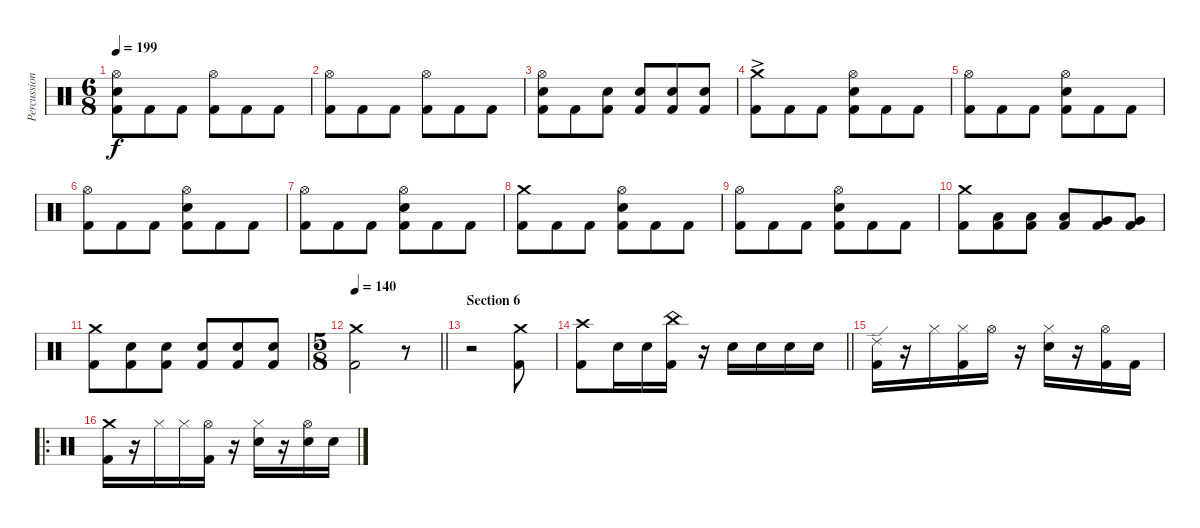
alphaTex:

\track ("Percussion" "Percussion") {instrument percussion}
\staff {score}
\articulation defaults
\ts (6 8)
\tempo 199
\clef neutral
\ks c
("Hi-Hat (open)" "Electric Snare (hit)" "Kick (hit) 2").8{dy f} "Kick (hit) 2".8 "Kick (hit) 2".8 ("Hi-Hat (open)" "Kick (hit) 2").8 "Kick (hit) 2".8 "Kick (hit) 2".8 |
("Hi-Hat (open)" "Kick (hit) 2").8 "Kick (hit) 2".8 "Kick (hit) 2".8 ("Hi-Hat (open)" "Kick (hit) 2").8 "Kick (hit) 2".8 "Kick (hit) 2".8 |
("Hi-Hat (open)" "Electric Snare (hit)" "Kick (hit) 2").8 "Kick (hit) 2".8 ("Electric Snare (hit)" "Kick (hit) 2").8 ("Electric Snare (hit)" "Kick (hit) 2").8 ("Electric Snare (hit)" "Kick (hit) 2").8 ("Electric Snare (hit)" "Kick (hit) 2").8 |
("Crash medium (hit)"{ac} "Kick (hit) 2").8 "Kick (hit) 2".8 "Kick (hit) 2".8 ("Hi-Hat (open)" "Electric Snare (hit)" "Kick (hit) 2").8 "Kick (hit) 2".8 "Kick (hit) 2".8 |
("Hi-Hat (open)" "Kick (hit) 2").8 "Kick (hit) 2".8 "Kick (hit) 2".8 ("Hi-Hat (open)" "Electric Snare (hit)" "Kick (hit) 2").8 "Kick (hit) 2".8 "Kick (hit) 2".8 |
("Hi-Hat (open)" "Kick (hit) 2").8 "Kick (hit) 2".8 "Kick (hit) 2".8 ("Hi-Hat (open)" "Electric Snare (hit)" "Kick (hit) 2").8 "Kick (hit) 2".8 "Kick (hit) 2".8 |
("Hi-Hat (open)" "Kick (hit) 2").8 "Kick (hit) 2".8 "Kick (hit) 2".8 ("Hi-Hat (open)" "Electric Snare (hit)" "Kick (hit) 2").8 "Kick (hit) 2".8 "Kick (hit) 2".8 |
("Crash medium (hit)" "Kick (hit) 2").8 "Kick (hit) 2".8 "Kick (hit) 2".8 ("Hi-Hat (open)" "Electric Snare (hit)" "Kick (hit) 2").8 "Kick (hit) 2".8 "Kick (hit) 2".8 |
("Hi-Hat (open)" "Kick (hit) 2").8 "Kick (hit) 2".8 "Kick (hit) 2".8 ("Hi-Hat (open)" "Electric Snare (hit)" "Kick (hit) 2").8 "Kick (hit) 2".8 "Kick (hit) 2".8 |
("Crash medium (hit)" "Kick (hit) 2").8 ("Low Tom (hit)" "Kick (hit) 2").8 ("Low Tom (hit)" "Kick (hit) 2").8 ("Low Tom (hit)" "Kick (hit) 2").8 ("Very Low Tom (hit)" "Kick (hit) 2").8 ("Very Low Tom (hit)" "Kick (hit) 2").8 |
("Crash medium (hit)" "Kick (hit) 2").8 ("Electric Snare (hit)" "Kick (hit) 2").8 ("Electric Snare (hit)" "Kick (hit) 2").8 ("Electric Snare (hit)" "Kick (hit) 2").8 ("Electric Snare (hit)" "Kick (hit) 2").8 ("Electric Snare (hit)" "Kick (hit) 2").8 |
\ts (5 8)
\tempo 140
\barLineRight lightlight
("Crash medium (hit)" "Kick (hit) 2").2 r.8 |
\section ("" "Section 6")
r.2 ("Crash medium (hit)" "Kick (hit) 2").8 |
\barLineRight lightlight
("Crash high (hit)" "Kick (hit) 2").8 "Electric Snare (hit)".16 "Electric Snare (hit)".16 ("China (hit)" "Kick (hit) 2").16 r.16 "Electric Snare (hit)".16 "Electric Snare (hit)".16 "Electric Snare (hit)".16 "Electric Snare (hit)".16 |
("Ride (edge) 2" "Kick (hit) 2").16 r.16 "Hi-Hat (closed)".16 ("Hi-Hat (closed)" "Kick (hit) 2").16 "Hi-Hat (open)".16 r.16 ("Hi-Hat (closed)" "Electric Snare (hit)").16 r.16 ("Hi-Hat (open)" "Kick (hit) 2").16 "Kick (hit) 2".16 |
\ro
("Crash medium (hit)" "Kick (hit) 2").16 r.16 "Hi-Hat (closed)".16 "Hi-Hat (closed)".16 ("Hi-Hat (open)" "Kick (hit) 2").16 r.16 ("Hi-Hat (closed)" "Electric Snare (hit)").16 r.16 ("Hi-Hat (open)" "Electric Snare (hit)").16 "Electric Snare (hit)".16
